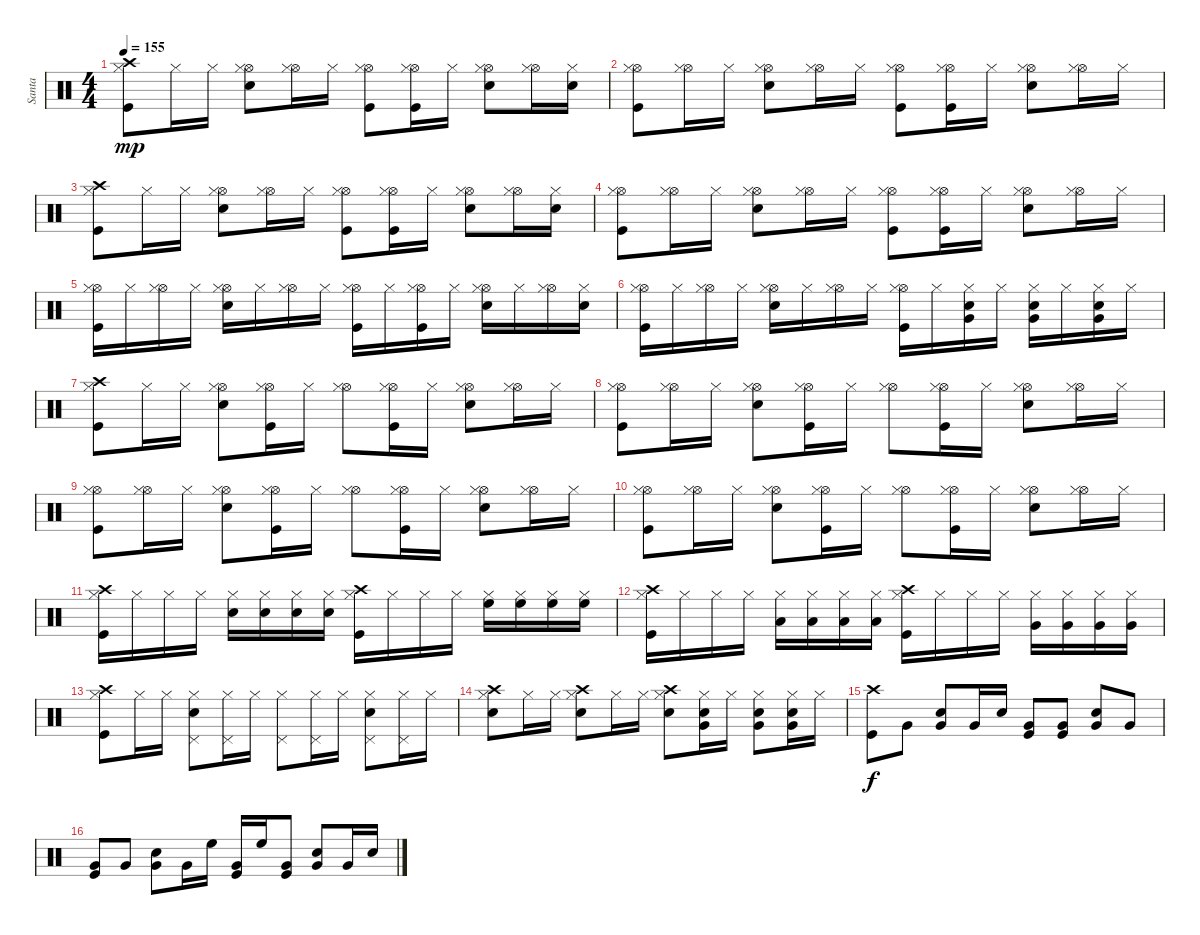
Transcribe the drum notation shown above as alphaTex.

\track ("Santa" "Santa") {instrument percussion}
\staff {score}
\articulation defaults
\ts (4 4)
\tempo 155
\clef neutral
\ks c
("Kick (hit)" "Crash high (hit)" "Hi-Hat (closed)").8{dy mp} "Hi-Hat (closed)".16 "Hi-Hat (closed)".16 ("Snare (hit) 2" "Hi-Hat (open)" "Hi-Hat (closed)").8 ("Hi-Hat (open)" "Hi-Hat (closed)").16 "Hi-Hat (closed)".16 ("Kick (hit)" "Hi-Hat (open)" "Hi-Hat (closed)").8 ("Kick (hit)" "Hi-Hat (open)" "Hi-Hat (closed)").16 "Hi-Hat (closed)".16 ("Snare (hit) 2" "Hi-Hat (open)" "Hi-Hat (closed)").8 ("Hi-Hat (open)" "Hi-Hat (closed)").16 ("Snare (hit) 2" "Hi-Hat (closed)").16 |
("Kick (hit)" "Hi-Hat (open)" "Hi-Hat (closed)").8 ("Hi-Hat (open)" "Hi-Hat (closed)").16 "Hi-Hat (closed)".16 ("Snare (hit) 2" "Hi-Hat (open)" "Hi-Hat (closed)").8 ("Hi-Hat (open)" "Hi-Hat (closed)").16 "Hi-Hat (closed)".16 ("Kick (hit)" "Hi-Hat (open)" "Hi-Hat (closed)").8 ("Kick (hit)" "Hi-Hat (open)" "Hi-Hat (closed)").16 "Hi-Hat (closed)".16 ("Snare (hit) 2" "Hi-Hat (open)" "Hi-Hat (closed)").8 ("Hi-Hat (open)" "Hi-Hat (closed)").16 "Hi-Hat (closed)".16 |
("Kick (hit)" "Crash high (hit)" "Hi-Hat (closed)").8 "Hi-Hat (closed)".16 "Hi-Hat (closed)".16 ("Snare (hit) 2" "Hi-Hat (open)" "Hi-Hat (closed)").8 ("Hi-Hat (open)" "Hi-Hat (closed)").16 "Hi-Hat (closed)".16 ("Kick (hit)" "Hi-Hat (open)" "Hi-Hat (closed)").8 ("Kick (hit)" "Hi-Hat (open)" "Hi-Hat (closed)").16 "Hi-Hat (closed)".16 ("Snare (hit) 2" "Hi-Hat (open)" "Hi-Hat (closed)").8 ("Hi-Hat (open)" "Hi-Hat (closed)").16 ("Snare (hit) 2" "Hi-Hat (closed)").16 |
("Kick (hit)" "Hi-Hat (open)" "Hi-Hat (closed)").8 ("Hi-Hat (open)" "Hi-Hat (closed)").16 "Hi-Hat (closed)".16 ("Snare (hit) 2" "Hi-Hat (open)" "Hi-Hat (closed)").8 ("Hi-Hat (open)" "Hi-Hat (closed)").16 "Hi-Hat (closed)".16 ("Kick (hit)" "Hi-Hat (open)" "Hi-Hat (closed)").8 ("Kick (hit)" "Hi-Hat (open)" "Hi-Hat (closed)").16 "Hi-Hat (closed)".16 ("Snare (hit) 2" "Hi-Hat (open)" "Hi-Hat (closed)").8 ("Hi-Hat (open)" "Hi-Hat (closed)").16 "Hi-Hat (closed)".16 |
("Kick (hit)" "Hi-Hat (open)" "Hi-Hat (closed)").16 "Hi-Hat (closed)".16 ("Hi-Hat (open)" "Hi-Hat (closed)").16 "Hi-Hat (closed)".16 ("Snare (hit) 2" "Hi-Hat (open)" "Hi-Hat (closed)").16 "Hi-Hat (closed)".16 ("Hi-Hat (open)" "Hi-Hat (closed)").16 "Hi-Hat (closed)".16 ("Kick (hit)" "Hi-Hat (open)" "Hi-Hat (closed)").16 "Hi-Hat (closed)".16 ("Kick (hit)" "Hi-Hat (open)" "Hi-Hat (closed)").16 "Hi-Hat (closed)".16 ("Snare (hit) 2" "Hi-Hat (open)" "Hi-Hat (closed)").16 "Hi-Hat (closed)".16 ("Hi-Hat (open)" "Hi-Hat (closed)").16 ("Snare (hit) 2" "Hi-Hat (closed)").16 |
("Kick (hit)" "Hi-Hat (open)" "Hi-Hat (closed)").16 "Hi-Hat (closed)".16 ("Hi-Hat (open)" "Hi-Hat (closed)").16 "Hi-Hat (closed)".16 ("Snare (hit) 2" "Hi-Hat (open)" "Hi-Hat (closed)").16 "Hi-Hat (closed)".16 ("Hi-Hat (open)" "Hi-Hat (closed)").16 "Hi-Hat (closed)".16 ("Kick (hit)" "Hi-Hat (open)" "Hi-Hat (closed)").16 "Hi-Hat (closed)".16 ("Snare (hit) 2" "Very Low Tom (hit)" "Hi-Hat (closed)").16 "Hi-Hat (closed)".16 ("Snare (hit) 2" "Very Low Tom (hit)" "Hi-Hat (closed)").16 "Hi-Hat (closed)".16 ("Snare (hit) 2" "Very Low Tom (hit)" "Hi-Hat (closed)").16 "Hi-Hat (closed)".16 |
("Kick (hit)" "Crash high (hit)" "Hi-Hat (closed)").8 "Hi-Hat (closed)".16 "Hi-Hat (closed)".16 ("Snare (hit) 2" "Hi-Hat (open)" "Hi-Hat (closed)").8 ("Kick (hit)" "Hi-Hat (open)" "Hi-Hat (closed)").16 "Hi-Hat (closed)".16 ("Hi-Hat (open)" "Hi-Hat (closed)").8 ("Kick (hit)" "Hi-Hat (open)" "Hi-Hat (closed)").16 "Hi-Hat (closed)".16 ("Snare (hit) 2" "Hi-Hat (open)" "Hi-Hat (closed)").8 ("Hi-Hat (open)" "Hi-Hat (closed)").16 "Hi-Hat (closed)".16 |
("Kick (hit)" "Hi-Hat (open)" "Hi-Hat (closed)").8 ("Hi-Hat (open)" "Hi-Hat (closed)").16 "Hi-Hat (closed)".16 ("Snare (hit) 2" "Hi-Hat (open)" "Hi-Hat (closed)").8 ("Kick (hit)" "Hi-Hat (open)" "Hi-Hat (closed)").16 "Hi-Hat (closed)".16 ("Hi-Hat (open)" "Hi-Hat (closed)").8 ("Kick (hit)" "Hi-Hat (open)" "Hi-Hat (closed)").16 "Hi-Hat (closed)".16 ("Snare (hit) 2" "Hi-Hat (open)" "Hi-Hat (closed)").8 ("Hi-Hat (open)" "Hi-Hat (closed)").16 "Hi-Hat (closed)".16 |
("Kick (hit)" "Hi-Hat (open)" "Hi-Hat (closed)").8 ("Hi-Hat (open)" "Hi-Hat (closed)").16 "Hi-Hat (closed)".16 ("Snare (hit) 2" "Hi-Hat (open)" "Hi-Hat (closed)").8 ("Kick (hit)" "Hi-Hat (open)" "Hi-Hat (closed)").16 "Hi-Hat (closed)".16 ("Hi-Hat (open)" "Hi-Hat (closed)").8 ("Kick (hit)" "Hi-Hat (open)" "Hi-Hat (closed)").16 "Hi-Hat (closed)".16 ("Snare (hit) 2" "Hi-Hat (open)" "Hi-Hat (closed)").8 ("Hi-Hat (open)" "Hi-Hat (closed)").16 "Hi-Hat (closed)".16 |
("Kick (hit)" "Hi-Hat (open)" "Hi-Hat (closed)").8 ("Hi-Hat (open)" "Hi-Hat (closed)").16 "Hi-Hat (closed)".16 ("Snare (hit) 2" "Hi-Hat (open)" "Hi-Hat (closed)").8 ("Kick (hit)" "Hi-Hat (open)" "Hi-Hat (closed)").16 "Hi-Hat (closed)".16 ("Hi-Hat (open)" "Hi-Hat (closed)").8 ("Kick (hit)" "Hi-Hat (open)" "Hi-Hat (closed)").16 "Hi-Hat (closed)".16 ("Snare (hit) 2" "Hi-Hat (open)" "Hi-Hat (closed)").8 ("Hi-Hat (open)" "Hi-Hat (closed)").16 "Hi-Hat (closed)".16 |
("Kick (hit)" "Crash high (hit)" "Hi-Hat (closed)").16 "Hi-Hat (closed)".16 "Hi-Hat (closed)".16 "Hi-Hat (closed)".16 ("Snare (hit) 2" "Hi-Hat (closed)").16 ("Snare (hit) 2" "Hi-Hat (closed)").16 ("Snare (hit) 2" "Hi-Hat (closed)").16 ("Snare (hit) 2" "Hi-Hat (closed)").16 ("Kick (hit)" "Crash high (hit)" "Hi-Hat (closed)").16 "Hi-Hat (closed)".16 "Hi-Hat (closed)".16 "Hi-Hat (closed)".16 ("High Floor Tom (hit)" "Hi-Hat (closed)").16 ("High Floor Tom (hit)" "Hi-Hat (closed)").16 ("High Floor Tom (hit)" "Hi-Hat (closed)").16 ("High Floor Tom (hit)" "Hi-Hat (closed)").16 |
("Kick (hit)" "Crash high (hit)" "Hi-Hat (closed)").16 "Hi-Hat (closed)".16 "Hi-Hat (closed)".16 "Hi-Hat (closed)".16 ("Low Tom (hit)" "Hi-Hat (closed)").16 ("Low Tom (hit)" "Hi-Hat (closed)").16 ("Low Tom (hit)" "Hi-Hat (closed)").16 ("Low Tom (hit)" "Hi-Hat (closed)").16 ("Kick (hit)" "Crash high (hit)" "Hi-Hat (closed)").16 "Hi-Hat (closed)".16 "Hi-Hat (closed)".16 "Hi-Hat (closed)".16 ("Very Low Tom (hit)" "Hi-Hat (closed)").16 ("Very Low Tom (hit)" "Hi-Hat (closed)").16 ("Very Low Tom (hit)" "Hi-Hat (closed)").16 ("Very Low Tom (hit)" "Hi-Hat (closed)").16 |
("Kick (hit)" "Crash high (hit)" "Hi-Hat (closed)").8 "Hi-Hat (closed)".16 "Hi-Hat (closed)".16 ("Pedal Hi-Hat (hit)" "Snare (hit) 2" "Hi-Hat (closed)").8 ("Pedal Hi-Hat (hit)" "Hi-Hat (closed)").16 "Hi-Hat (closed)".16 ("Pedal Hi-Hat (hit)" "Hi-Hat (closed)").8 ("Pedal Hi-Hat (hit)" "Hi-Hat (closed)").16 "Hi-Hat (closed)".16 ("Pedal Hi-Hat (hit)" "Snare (hit) 2" "Hi-Hat (closed)").8 ("Pedal Hi-Hat (hit)" "Hi-Hat (closed)").16 "Hi-Hat (closed)".16 |
("Snare (hit) 2" "Hi-Hat (closed)" "Crash high (hit)").8 "Hi-Hat (closed)".16 "Hi-Hat (closed)".16 ("Snare (hit) 2" "Hi-Hat (closed)" "Crash high (hit)").8 "Hi-Hat (closed)".16 "Hi-Hat (closed)".16 ("Snare (hit) 2" "Hi-Hat (closed)" "Crash high (hit)").8 ("Hi-Hat (closed)" "Snare (hit) 2" "Very Low Tom (hit)").16 "Hi-Hat (closed)".16 ("Hi-Hat (closed)" "Snare (hit) 2" "Very Low Tom (hit)").8 ("Hi-Hat (closed)" "Snare (hit) 2" "Very Low Tom (hit)").16 "Hi-Hat (closed)".16 |
("Kick (hit)" "Crash high (hit)").8{dy f} "Very Low Tom (hit)".8 ("Very Low Tom (hit)" "Snare (hit) 2").8 "Very Low Tom (hit)".16 "Snare (hit) 2".16 ("Kick (hit)" "Very Low Tom (hit)").8 ("Kick (hit)" "Very Low Tom (hit)").8 ("Very Low Tom (hit)" "Snare (hit) 2").8 "Very Low Tom (hit)".8 |
("Kick (hit)" "Very Low Tom (hit)").8 "Very Low Tom (hit)".8 ("Very Low Tom (hit)" "Snare (hit) 2").8 "Very Low Tom (hit)".16 "High Floor Tom (hit)".16 ("Kick (hit)" "Very Low Tom (hit)").16 "High Floor Tom (hit)".16 ("Kick (hit)" "Very Low Tom (hit)").8 ("Very Low Tom (hit)" "Snare (hit) 2").8 "Very Low Tom (hit)".16 "Snare (hit) 2".16
